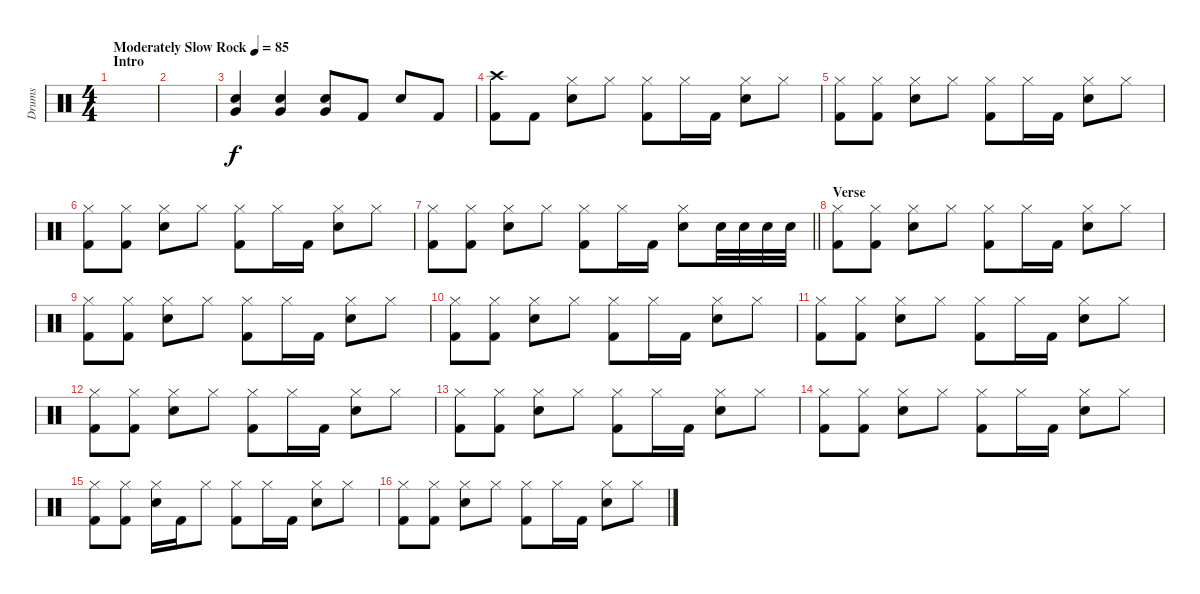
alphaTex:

\track ("Drums" "Drums") {instrument percussion}
\staff {score}
\articulation defaults
\ts (4 4)
\section ("" "Intro")
\tempo (85 "Moderately Slow Rock")
\clef neutral
\ks c
|
|
("Snare (hit) 2" "Very Low Tom (hit)").4 ("Snare (hit) 2" "Very Low Tom (hit)").4 ("Snare (hit) 2" "Very Low Tom (hit)").8 "Kick (hit) 2".8 "Snare (hit) 2".8 "Kick (hit) 2".8 |
("Crash high (hit)" "Kick (hit) 2").8 "Kick (hit) 2".8 ("Hi-Hat (closed)" "Snare (hit) 2").8 "Hi-Hat (closed)".8 ("Hi-Hat (closed)" "Kick (hit) 2").8 "Hi-Hat (closed)".16 "Kick (hit) 2".16 ("Hi-Hat (closed)" "Snare (hit) 2").8 "Hi-Hat (closed)".8 |
("Hi-Hat (closed)" "Kick (hit) 2").8 ("Hi-Hat (closed)" "Kick (hit) 2").8 ("Hi-Hat (closed)" "Snare (hit) 2").8 "Hi-Hat (closed)".8 ("Hi-Hat (closed)" "Kick (hit) 2").8 "Hi-Hat (closed)".16 "Kick (hit) 2".16 ("Hi-Hat (closed)" "Snare (hit) 2").8 "Hi-Hat (closed)".8 |
("Hi-Hat (closed)" "Kick (hit) 2").8 ("Hi-Hat (closed)" "Kick (hit) 2").8 ("Hi-Hat (closed)" "Snare (hit) 2").8 "Hi-Hat (closed)".8 ("Hi-Hat (closed)" "Kick (hit) 2").8 "Hi-Hat (closed)".16 "Kick (hit) 2".16 ("Hi-Hat (closed)" "Snare (hit) 2").8 "Hi-Hat (closed)".8 |
\barLineRight lightlight
("Hi-Hat (closed)" "Kick (hit) 2").8 ("Hi-Hat (closed)" "Kick (hit) 2").8 ("Hi-Hat (closed)" "Snare (hit) 2").8 "Hi-Hat (closed)".8 ("Hi-Hat (closed)" "Kick (hit) 2").8 "Hi-Hat (closed)".16 "Kick (hit) 2".16 ("Hi-Hat (closed)" "Snare (hit) 2").8 "Snare (hit) 2".32 "Snare (hit) 2".32 "Snare (hit) 2".32 "Snare (hit) 2".32 |
\section ("" "Verse")
("Hi-Hat (closed)" "Kick (hit) 2").8 ("Hi-Hat (closed)" "Kick (hit) 2").8 ("Hi-Hat (closed)" "Snare (hit) 2").8 "Hi-Hat (closed)".8 ("Hi-Hat (closed)" "Kick (hit) 2").8 "Hi-Hat (closed)".16 "Kick (hit) 2".16 ("Hi-Hat (closed)" "Snare (hit) 2").8 "Hi-Hat (closed)".8 |
("Hi-Hat (closed)" "Kick (hit) 2").8 ("Hi-Hat (closed)" "Kick (hit) 2").8 ("Hi-Hat (closed)" "Snare (hit) 2").8 "Hi-Hat (closed)".8 ("Hi-Hat (closed)" "Kick (hit) 2").8 "Hi-Hat (closed)".16 "Kick (hit) 2".16 ("Hi-Hat (closed)" "Snare (hit) 2").8 "Hi-Hat (closed)".8 |
("Hi-Hat (closed)" "Kick (hit) 2").8 ("Hi-Hat (closed)" "Kick (hit) 2").8 ("Hi-Hat (closed)" "Snare (hit) 2").8 "Hi-Hat (closed)".8 ("Hi-Hat (closed)" "Kick (hit) 2").8 "Hi-Hat (closed)".16 "Kick (hit) 2".16 ("Hi-Hat (closed)" "Snare (hit) 2").8 "Hi-Hat (closed)".8 |
("Hi-Hat (closed)" "Kick (hit) 2").8 ("Hi-Hat (closed)" "Kick (hit) 2").8 ("Hi-Hat (closed)" "Snare (hit) 2").8 "Hi-Hat (closed)".8 ("Hi-Hat (closed)" "Kick (hit) 2").8 "Hi-Hat (closed)".16 "Kick (hit) 2".16 ("Hi-Hat (closed)" "Snare (hit) 2").8 "Hi-Hat (closed)".8 |
("Hi-Hat (closed)" "Kick (hit) 2").8 ("Hi-Hat (closed)" "Kick (hit) 2").8 ("Hi-Hat (closed)" "Snare (hit) 2").8 "Hi-Hat (closed)".8 ("Hi-Hat (closed)" "Kick (hit) 2").8 "Hi-Hat (closed)".16 "Kick (hit) 2".16 ("Hi-Hat (closed)" "Snare (hit) 2").8 "Hi-Hat (closed)".8 |
("Hi-Hat (closed)" "Kick (hit) 2").8 ("Hi-Hat (closed)" "Kick (hit) 2").8 ("Hi-Hat (closed)" "Snare (hit) 2").8 "Hi-Hat (closed)".8 ("Hi-Hat (closed)" "Kick (hit) 2").8 "Hi-Hat (closed)".16 "Kick (hit) 2".16 ("Hi-Hat (closed)" "Snare (hit) 2").8 "Hi-Hat (closed)".8 |
("Hi-Hat (closed)" "Kick (hit) 2").8 ("Hi-Hat (closed)" "Kick (hit) 2").8 ("Hi-Hat (closed)" "Snare (hit) 2").8 "Hi-Hat (closed)".8 ("Hi-Hat (closed)" "Kick (hit) 2").8 "Hi-Hat (closed)".16 "Kick (hit) 2".16 ("Hi-Hat (closed)" "Snare (hit) 2").8 "Hi-Hat (closed)".8 |
("Hi-Hat (closed)" "Kick (hit) 2").8 ("Hi-Hat (closed)" "Kick (hit) 2").8 ("Hi-Hat (closed)" "Snare (hit) 2").16 "Kick (hit) 2".16 "Hi-Hat (closed)".8 ("Hi-Hat (closed)" "Kick (hit) 2").8 "Hi-Hat (closed)".16 "Kick (hit) 2".16 ("Hi-Hat (closed)" "Snare (hit) 2").8 "Hi-Hat (closed)".8 |
("Hi-Hat (closed)" "Kick (hit) 2").8 ("Hi-Hat (closed)" "Kick (hit) 2").8 ("Hi-Hat (closed)" "Snare (hit) 2").8 "Hi-Hat (closed)".8 ("Hi-Hat (closed)" "Kick (hit) 2").8 "Hi-Hat (closed)".16 "Kick (hit) 2".16 ("Hi-Hat (closed)" "Snare (hit) 2").8 "Hi-Hat (closed)".8
